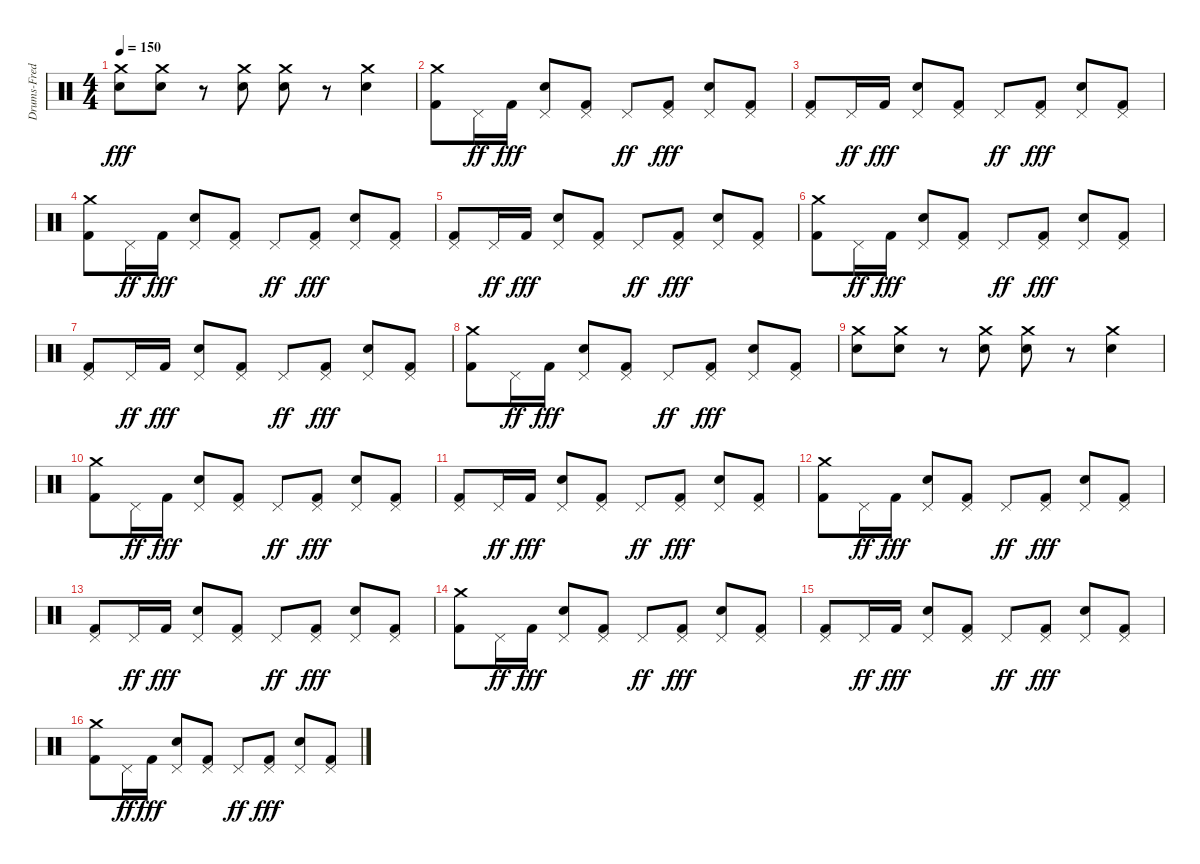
\track ("Drums-Fred" "Drums-Fred") {instrument percussion}
\staff {score}
\articulation defaults
\ts (4 4)
\tempo 150
\clef neutral
\ks c
("Crash medium (hit)" "Snare (hit) 2").8{dy fff} ("Crash medium (hit)" "Snare (hit) 2").8 r.8 ("Crash medium (hit)" "Snare (hit) 2").8 ("Crash medium (hit)" "Snare (hit) 2").8 r.8 ("Crash medium (hit)" "Snare (hit) 2").4 |
("Crash medium (hit)" "Kick (hit) 2").8 "Pedal Hi-Hat (hit)".16{dy ff} "Kick (hit) 2".16{dy fff} ("Pedal Hi-Hat (hit)" "Snare (hit) 2").8 ("Pedal Hi-Hat (hit)" "Kick (hit) 2").8 "Pedal Hi-Hat (hit)".8{dy ff} ("Pedal Hi-Hat (hit)" "Kick (hit) 2").8{dy fff} ("Pedal Hi-Hat (hit)" "Snare (hit) 2").8 ("Pedal Hi-Hat (hit)" "Kick (hit) 2").8 |
("Pedal Hi-Hat (hit)" "Kick (hit) 2").8 "Pedal Hi-Hat (hit)".16{dy ff} "Kick (hit) 2".16{dy fff} ("Pedal Hi-Hat (hit)" "Snare (hit) 2").8 ("Pedal Hi-Hat (hit)" "Kick (hit) 2").8 "Pedal Hi-Hat (hit)".8{dy ff} ("Pedal Hi-Hat (hit)" "Kick (hit) 2").8{dy fff} ("Pedal Hi-Hat (hit)" "Snare (hit) 2").8 ("Pedal Hi-Hat (hit)" "Kick (hit) 2").8 |
("Crash medium (hit)" "Kick (hit) 2").8 "Pedal Hi-Hat (hit)".16{dy ff} "Kick (hit) 2".16{dy fff} ("Pedal Hi-Hat (hit)" "Snare (hit) 2").8 ("Pedal Hi-Hat (hit)" "Kick (hit) 2").8 "Pedal Hi-Hat (hit)".8{dy ff} ("Pedal Hi-Hat (hit)" "Kick (hit) 2").8{dy fff} ("Pedal Hi-Hat (hit)" "Snare (hit) 2").8 ("Pedal Hi-Hat (hit)" "Kick (hit) 2").8 |
("Pedal Hi-Hat (hit)" "Kick (hit) 2").8 "Pedal Hi-Hat (hit)".16{dy ff} "Kick (hit) 2".16{dy fff} ("Pedal Hi-Hat (hit)" "Snare (hit) 2").8 ("Pedal Hi-Hat (hit)" "Kick (hit) 2").8 "Pedal Hi-Hat (hit)".8{dy ff} ("Pedal Hi-Hat (hit)" "Kick (hit) 2").8{dy fff} ("Pedal Hi-Hat (hit)" "Snare (hit) 2").8 ("Pedal Hi-Hat (hit)" "Kick (hit) 2").8 |
("Crash medium (hit)" "Kick (hit) 2").8 "Pedal Hi-Hat (hit)".16{dy ff} "Kick (hit) 2".16{dy fff} ("Pedal Hi-Hat (hit)" "Snare (hit) 2").8 ("Pedal Hi-Hat (hit)" "Kick (hit) 2").8 "Pedal Hi-Hat (hit)".8{dy ff} ("Pedal Hi-Hat (hit)" "Kick (hit) 2").8{dy fff} ("Pedal Hi-Hat (hit)" "Snare (hit) 2").8 ("Pedal Hi-Hat (hit)" "Kick (hit) 2").8 |
("Pedal Hi-Hat (hit)" "Kick (hit) 2").8 "Pedal Hi-Hat (hit)".16{dy ff} "Kick (hit) 2".16{dy fff} ("Pedal Hi-Hat (hit)" "Snare (hit) 2").8 ("Pedal Hi-Hat (hit)" "Kick (hit) 2").8 "Pedal Hi-Hat (hit)".8{dy ff} ("Pedal Hi-Hat (hit)" "Kick (hit) 2").8{dy fff} ("Pedal Hi-Hat (hit)" "Snare (hit) 2").8 ("Pedal Hi-Hat (hit)" "Kick (hit) 2").8 |
("Crash medium (hit)" "Kick (hit) 2").8 "Pedal Hi-Hat (hit)".16{dy ff} "Kick (hit) 2".16{dy fff} ("Pedal Hi-Hat (hit)" "Snare (hit) 2").8 ("Pedal Hi-Hat (hit)" "Kick (hit) 2").8 "Pedal Hi-Hat (hit)".8{dy ff} ("Pedal Hi-Hat (hit)" "Kick (hit) 2").8{dy fff} ("Pedal Hi-Hat (hit)" "Snare (hit) 2").8 ("Pedal Hi-Hat (hit)" "Kick (hit) 2").8 |
("Crash medium (hit)" "Snare (hit) 2").8 ("Crash medium (hit)" "Snare (hit) 2").8 r.8 ("Crash medium (hit)" "Snare (hit) 2").8 ("Crash medium (hit)" "Snare (hit) 2").8 r.8 ("Crash medium (hit)" "Snare (hit) 2").4 |
("Crash medium (hit)" "Kick (hit) 2").8 "Pedal Hi-Hat (hit)".16{dy ff} "Kick (hit) 2".16{dy fff} ("Pedal Hi-Hat (hit)" "Snare (hit) 2").8 ("Pedal Hi-Hat (hit)" "Kick (hit) 2").8 "Pedal Hi-Hat (hit)".8{dy ff} ("Pedal Hi-Hat (hit)" "Kick (hit) 2").8{dy fff} ("Pedal Hi-Hat (hit)" "Snare (hit) 2").8 ("Pedal Hi-Hat (hit)" "Kick (hit) 2").8 |
("Pedal Hi-Hat (hit)" "Kick (hit) 2").8 "Pedal Hi-Hat (hit)".16{dy ff} "Kick (hit) 2".16{dy fff} ("Pedal Hi-Hat (hit)" "Snare (hit) 2").8 ("Pedal Hi-Hat (hit)" "Kick (hit) 2").8 "Pedal Hi-Hat (hit)".8{dy ff} ("Pedal Hi-Hat (hit)" "Kick (hit) 2").8{dy fff} ("Pedal Hi-Hat (hit)" "Snare (hit) 2").8 ("Pedal Hi-Hat (hit)" "Kick (hit) 2").8 |
("Crash medium (hit)" "Kick (hit) 2").8 "Pedal Hi-Hat (hit)".16{dy ff} "Kick (hit) 2".16{dy fff} ("Pedal Hi-Hat (hit)" "Snare (hit) 2").8 ("Pedal Hi-Hat (hit)" "Kick (hit) 2").8 "Pedal Hi-Hat (hit)".8{dy ff} ("Pedal Hi-Hat (hit)" "Kick (hit) 2").8{dy fff} ("Pedal Hi-Hat (hit)" "Snare (hit) 2").8 ("Pedal Hi-Hat (hit)" "Kick (hit) 2").8 |
("Pedal Hi-Hat (hit)" "Kick (hit) 2").8 "Pedal Hi-Hat (hit)".16{dy ff} "Kick (hit) 2".16{dy fff} ("Pedal Hi-Hat (hit)" "Snare (hit) 2").8 ("Pedal Hi-Hat (hit)" "Kick (hit) 2").8 "Pedal Hi-Hat (hit)".8{dy ff} ("Pedal Hi-Hat (hit)" "Kick (hit) 2").8{dy fff} ("Pedal Hi-Hat (hit)" "Snare (hit) 2").8 ("Pedal Hi-Hat (hit)" "Kick (hit) 2").8 |
("Crash medium (hit)" "Kick (hit) 2").8 "Pedal Hi-Hat (hit)".16{dy ff} "Kick (hit) 2".16{dy fff} ("Pedal Hi-Hat (hit)" "Snare (hit) 2").8 ("Pedal Hi-Hat (hit)" "Kick (hit) 2").8 "Pedal Hi-Hat (hit)".8{dy ff} ("Pedal Hi-Hat (hit)" "Kick (hit) 2").8{dy fff} ("Pedal Hi-Hat (hit)" "Snare (hit) 2").8 ("Pedal Hi-Hat (hit)" "Kick (hit) 2").8 |
("Pedal Hi-Hat (hit)" "Kick (hit) 2").8 "Pedal Hi-Hat (hit)".16{dy ff} "Kick (hit) 2".16{dy fff} ("Pedal Hi-Hat (hit)" "Snare (hit) 2").8 ("Pedal Hi-Hat (hit)" "Kick (hit) 2").8 "Pedal Hi-Hat (hit)".8{dy ff} ("Pedal Hi-Hat (hit)" "Kick (hit) 2").8{dy fff} ("Pedal Hi-Hat (hit)" "Snare (hit) 2").8 ("Pedal Hi-Hat (hit)" "Kick (hit) 2").8 |
("Crash medium (hit)" "Kick (hit) 2").8 "Pedal Hi-Hat (hit)".16{dy ff} "Kick (hit) 2".16{dy fff} ("Pedal Hi-Hat (hit)" "Snare (hit) 2").8 ("Pedal Hi-Hat (hit)" "Kick (hit) 2").8 "Pedal Hi-Hat (hit)".8{dy ff} ("Pedal Hi-Hat (hit)" "Kick (hit) 2").8{dy fff} ("Pedal Hi-Hat (hit)" "Snare (hit) 2").8 ("Pedal Hi-Hat (hit)" "Kick (hit) 2").8
